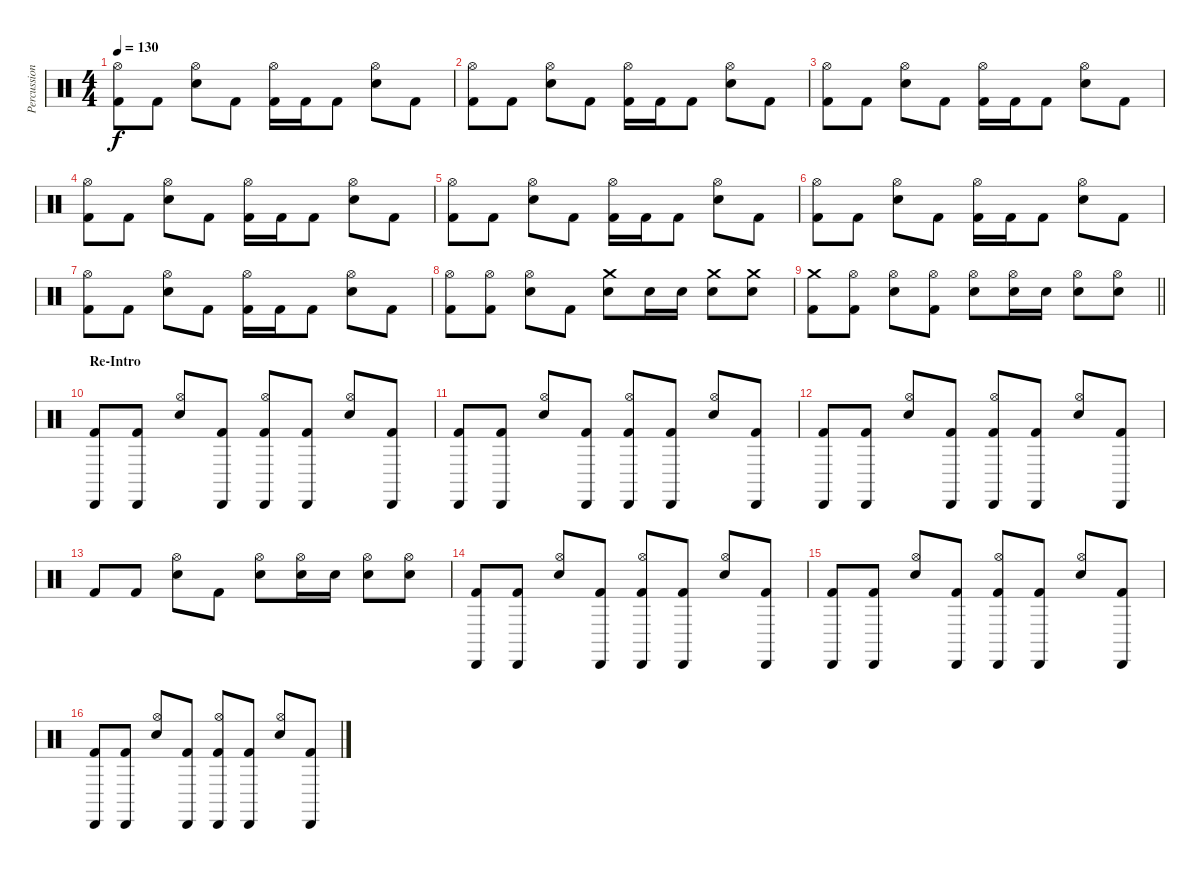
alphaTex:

\track ("Percussion" "Percussion") {instrument percussion}
\staff {score}
\articulation defaults
\ts (4 4)
\tempo 130
\clef neutral
\ks c
("Hi-Hat (open)" "Kick (hit) 2").8{dy f} "Kick (hit) 2".8 ("Hi-Hat (open)" "Electric Snare (hit)").8 "Kick (hit) 2".8 ("Hi-Hat (open)" "Kick (hit) 2").16 "Kick (hit) 2".16 "Kick (hit) 2".8 ("Hi-Hat (open)" "Electric Snare (hit)").8 "Kick (hit) 2".8 |
("Hi-Hat (open)" "Kick (hit) 2").8 "Kick (hit) 2".8 ("Hi-Hat (open)" "Electric Snare (hit)").8 "Kick (hit) 2".8 ("Hi-Hat (open)" "Kick (hit) 2").16 "Kick (hit) 2".16 "Kick (hit) 2".8 ("Hi-Hat (open)" "Electric Snare (hit)").8 "Kick (hit) 2".8 |
("Hi-Hat (open)" "Kick (hit) 2").8 "Kick (hit) 2".8 ("Hi-Hat (open)" "Electric Snare (hit)").8 "Kick (hit) 2".8 ("Hi-Hat (open)" "Kick (hit) 2").16 "Kick (hit) 2".16 "Kick (hit) 2".8 ("Hi-Hat (open)" "Electric Snare (hit)").8 "Kick (hit) 2".8 |
("Hi-Hat (open)" "Kick (hit) 2").8 "Kick (hit) 2".8 ("Hi-Hat (open)" "Electric Snare (hit)").8 "Kick (hit) 2".8 ("Hi-Hat (open)" "Kick (hit) 2").16 "Kick (hit) 2".16 "Kick (hit) 2".8 ("Hi-Hat (open)" "Electric Snare (hit)").8 "Kick (hit) 2".8 |
("Hi-Hat (open)" "Kick (hit) 2").8 "Kick (hit) 2".8 ("Hi-Hat (open)" "Electric Snare (hit)").8 "Kick (hit) 2".8 ("Hi-Hat (open)" "Kick (hit) 2").16 "Kick (hit) 2".16 "Kick (hit) 2".8 ("Hi-Hat (open)" "Electric Snare (hit)").8 "Kick (hit) 2".8 |
("Hi-Hat (open)" "Kick (hit) 2").8 "Kick (hit) 2".8 ("Hi-Hat (open)" "Electric Snare (hit)").8 "Kick (hit) 2".8 ("Hi-Hat (open)" "Kick (hit) 2").16 "Kick (hit) 2".16 "Kick (hit) 2".8 ("Hi-Hat (open)" "Electric Snare (hit)").8 "Kick (hit) 2".8 |
("Hi-Hat (open)" "Kick (hit) 2").8 "Kick (hit) 2".8 ("Hi-Hat (open)" "Electric Snare (hit)").8 "Kick (hit) 2".8 ("Hi-Hat (open)" "Kick (hit) 2").16 "Kick (hit) 2".16 "Kick (hit) 2".8 ("Hi-Hat (open)" "Electric Snare (hit)").8 "Kick (hit) 2".8 |
("Hi-Hat (open)" "Kick (hit) 2").8 ("Hi-Hat (open)" "Kick (hit) 2").8 ("Hi-Hat (open)" "Electric Snare (hit)").8 "Kick (hit) 2".8 ("Crash medium (hit)" "Electric Snare (hit)").8 "Electric Snare (hit)".16 "Electric Snare (hit)".16 ("Crash medium (hit)" "Electric Snare (hit)").8 ("Crash medium (hit)" "Electric Snare (hit)").8 |
\barLineRight lightlight
("Crash medium (hit)" "Kick (hit) 2").8 ("Hi-Hat (open)" "Kick (hit) 2").8 ("Hi-Hat (open)" "Electric Snare (hit)").8 ("Hi-Hat (open)" "Kick (hit) 2").8 ("Hi-Hat (open)" "Electric Snare (hit)").8 ("Hi-Hat (open)" "Electric Snare (hit)").16 "Electric Snare (hit)".16 ("Hi-Hat (open)" "Electric Snare (hit)").8 ("Hi-Hat (open)" "Electric Snare (hit)").8 |
\section ("" "Re-Intro")
("Cabasa (hit)" "Kick (hit) 2").8 ("Cabasa (hit)" "Kick (hit) 2").8 ("Hi-Hat (open)" "Electric Snare (hit)").8 ("Cabasa (hit)" "Kick (hit) 2").8 ("Cabasa (hit)" "Hi-Hat (open)" "Kick (hit) 2").8 ("Cabasa (hit)" "Kick (hit) 2").8 ("Hi-Hat (open)" "Electric Snare (hit)").8 ("Cabasa (hit)" "Kick (hit) 2").8 |
("Cabasa (hit)" "Kick (hit) 2").8 ("Cabasa (hit)" "Kick (hit) 2").8 ("Hi-Hat (open)" "Electric Snare (hit)").8 ("Cabasa (hit)" "Kick (hit) 2").8 ("Cabasa (hit)" "Hi-Hat (open)" "Kick (hit) 2").8 ("Cabasa (hit)" "Kick (hit) 2").8 ("Hi-Hat (open)" "Electric Snare (hit)").8 ("Cabasa (hit)" "Kick (hit) 2").8 |
("Cabasa (hit)" "Kick (hit) 2").8 ("Cabasa (hit)" "Kick (hit) 2").8 ("Hi-Hat (open)" "Electric Snare (hit)").8 ("Cabasa (hit)" "Kick (hit) 2").8 ("Cabasa (hit)" "Hi-Hat (open)" "Kick (hit) 2").8 ("Cabasa (hit)" "Kick (hit) 2").8 ("Hi-Hat (open)" "Electric Snare (hit)").8 ("Cabasa (hit)" "Kick (hit) 2").8 |
"Kick (hit) 2".8 "Kick (hit) 2".8 ("Hi-Hat (open)" "Electric Snare (hit)").8 "Kick (hit) 2".8 ("Hi-Hat (open)" "Electric Snare (hit)").8 ("Hi-Hat (open)" "Electric Snare (hit)").16 "Electric Snare (hit)".16 ("Hi-Hat (open)" "Electric Snare (hit)").8 ("Hi-Hat (open)" "Electric Snare (hit)").8 |
("Cabasa (hit)" "Kick (hit) 2").8 ("Cabasa (hit)" "Kick (hit) 2").8 ("Hi-Hat (open)" "Electric Snare (hit)").8 ("Cabasa (hit)" "Kick (hit) 2").8 ("Cabasa (hit)" "Hi-Hat (open)" "Kick (hit) 2").8 ("Cabasa (hit)" "Kick (hit) 2").8 ("Hi-Hat (open)" "Electric Snare (hit)").8 ("Cabasa (hit)" "Kick (hit) 2").8 |
("Cabasa (hit)" "Kick (hit) 2").8 ("Cabasa (hit)" "Kick (hit) 2").8 ("Hi-Hat (open)" "Electric Snare (hit)").8 ("Cabasa (hit)" "Kick (hit) 2").8 ("Cabasa (hit)" "Hi-Hat (open)" "Kick (hit) 2").8 ("Cabasa (hit)" "Kick (hit) 2").8 ("Hi-Hat (open)" "Electric Snare (hit)").8 ("Cabasa (hit)" "Kick (hit) 2").8 |
("Cabasa (hit)" "Kick (hit) 2").8 ("Cabasa (hit)" "Kick (hit) 2").8 ("Hi-Hat (open)" "Electric Snare (hit)").8 ("Cabasa (hit)" "Kick (hit) 2").8 ("Cabasa (hit)" "Hi-Hat (open)" "Kick (hit) 2").8 ("Cabasa (hit)" "Kick (hit) 2").8 ("Hi-Hat (open)" "Electric Snare (hit)").8 ("Cabasa (hit)" "Kick (hit) 2").8
